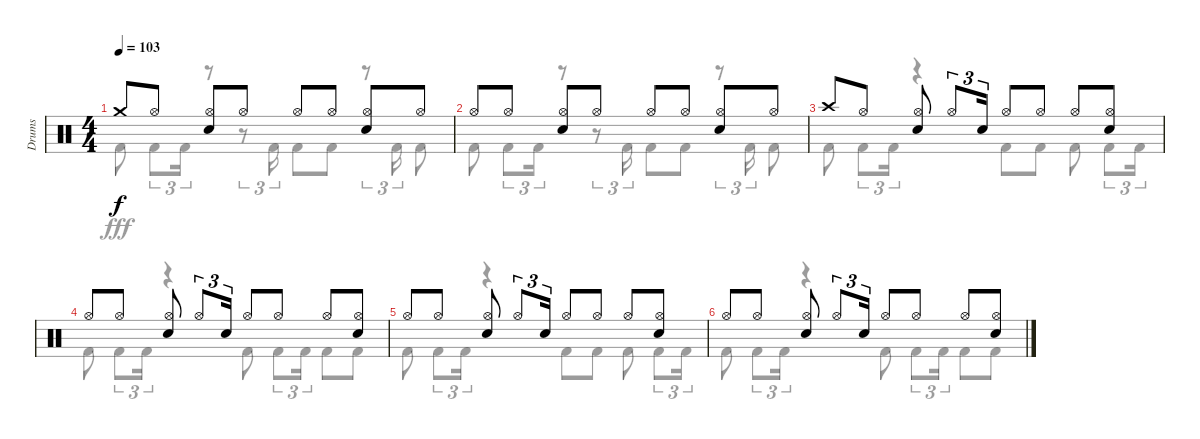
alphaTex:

\track ("Drums" "Drums") {instrument percussion}
\staff {score}
\articulation defaults
\voice
\ts (4 4)
\tempo 103
\clef neutral
\ks c "Crash medium (hit)".8{dy f} "Hi-Hat (open)".8
("Hi-Hat (open)" "Snare (hit) 2").8 "Hi-Hat (open)".8 "Hi-Hat (open)".8 "Hi-Hat (open)".8 ("Hi-Hat (open)" "Snare (hit) 2").8 "Hi-Hat (open)".8 |
"Hi-Hat (open)".8 "Hi-Hat (open)".8 ("Hi-Hat (open)" "Snare (hit) 2").8 "Hi-Hat (open)".8 "Hi-Hat (open)".8 "Hi-Hat (open)".8 ("Hi-Hat (open)" "Snare (hit) 2").8 "Hi-Hat (open)".8 |
"Crash high (hit)".8 "Hi-Hat (open)".8 ("Hi-Hat (open)" "Snare (hit) 2").8 "Hi-Hat (open)".8{tu (3 2)} "Snare (hit) 2".16{tu (3 2)} "Hi-Hat (open)".8 "Hi-Hat (open)".8 "Hi-Hat (open)".8 ("Hi-Hat (open)" "Snare (hit) 2").8 |
"Hi-Hat (open)".8 "Hi-Hat (open)".8 ("Hi-Hat (open)" "Snare (hit) 2").8 "Hi-Hat (open)".8{tu (3 2)} "Snare (hit) 2".16{tu (3 2)} "Hi-Hat (open)".8 "Hi-Hat (open)".8 "Hi-Hat (open)".8 ("Hi-Hat (open)" "Snare (hit) 2").8 |
"Hi-Hat (open)".8 "Hi-Hat (open)".8 ("Hi-Hat (open)" "Snare (hit) 2").8 "Hi-Hat (open)".8{tu (3 2)} "Snare (hit) 2".16{tu (3 2)} "Hi-Hat (open)".8 "Hi-Hat (open)".8 "Hi-Hat (open)".8 ("Hi-Hat (open)" "Snare (hit) 2").8 |
"Hi-Hat (open)".8 "Hi-Hat (open)".8 ("Hi-Hat (open)" "Snare (hit) 2").8 "Hi-Hat (open)".8{tu (3 2)} "Snare (hit) 2".16{tu (3 2)} "Hi-Hat (open)".8 "Hi-Hat (open)".8 "Hi-Hat (open)".8 ("Hi-Hat (open)" "Snare (hit) 2").8
\voice
\clef neutral
\ottava regular
\simile none
\ks c "Kick (hit) 2".8{dy fff} "Kick (hit) 2".8{tu (3 2)} "Kick (hit) 2".16{tu (3 2)}
r.8 r.8{tu (3 2)} "Kick (hit) 2".16{tu (3 2)} "Kick (hit) 2".8 "Kick (hit) 2".8 r.8{tu (3 2)} "Kick (hit) 2".16{tu (3 2)} "Kick (hit) 2".8 |
"Kick (hit) 2".8 "Kick (hit) 2".8{tu (3 2)} "Kick (hit) 2".16{tu (3 2)} r.8 r.8{tu (3 2)} "Kick (hit) 2".16{tu (3 2)} "Kick (hit) 2".8 "Kick (hit) 2".8 r.8{tu (3 2)} "Kick (hit) 2".16{tu (3 2)} "Kick (hit) 2".8 |
"Kick (hit) 2".8 "Kick (hit) 2".8{tu (3 2)} "Kick (hit) 2".16{tu (3 2)} r.4 "Kick (hit) 2".8 "Kick (hit) 2".8 "Kick (hit) 2".8 "Kick (hit) 2".8{tu (3 2)} "Kick (hit) 2".16{tu (3 2)} |
"Kick (hit) 2".8 "Kick (hit) 2".8{tu (3 2)} "Kick (hit) 2".16{tu (3 2)} r.4 "Kick (hit) 2".8 "Kick (hit) 2".8{tu (3 2)} "Kick (hit) 2".16{tu (3 2)} "Kick (hit) 2".8 "Kick (hit) 2".8 |
"Kick (hit) 2".8 "Kick (hit) 2".8{tu (3 2)} "Kick (hit) 2".16{tu (3 2)} r.4 "Kick (hit) 2".8 "Kick (hit) 2".8 "Kick (hit) 2".8 "Kick (hit) 2".8{tu (3 2)} "Kick (hit) 2".16{tu (3 2)} |
"Kick (hit) 2".8 "Kick (hit) 2".8{tu (3 2)} "Kick (hit) 2".16{tu (3 2)} r.4 "Kick (hit) 2".8 "Kick (hit) 2".8{tu (3 2)} "Kick (hit) 2".16{tu (3 2)} "Kick (hit) 2".8 "Kick (hit) 2".8
